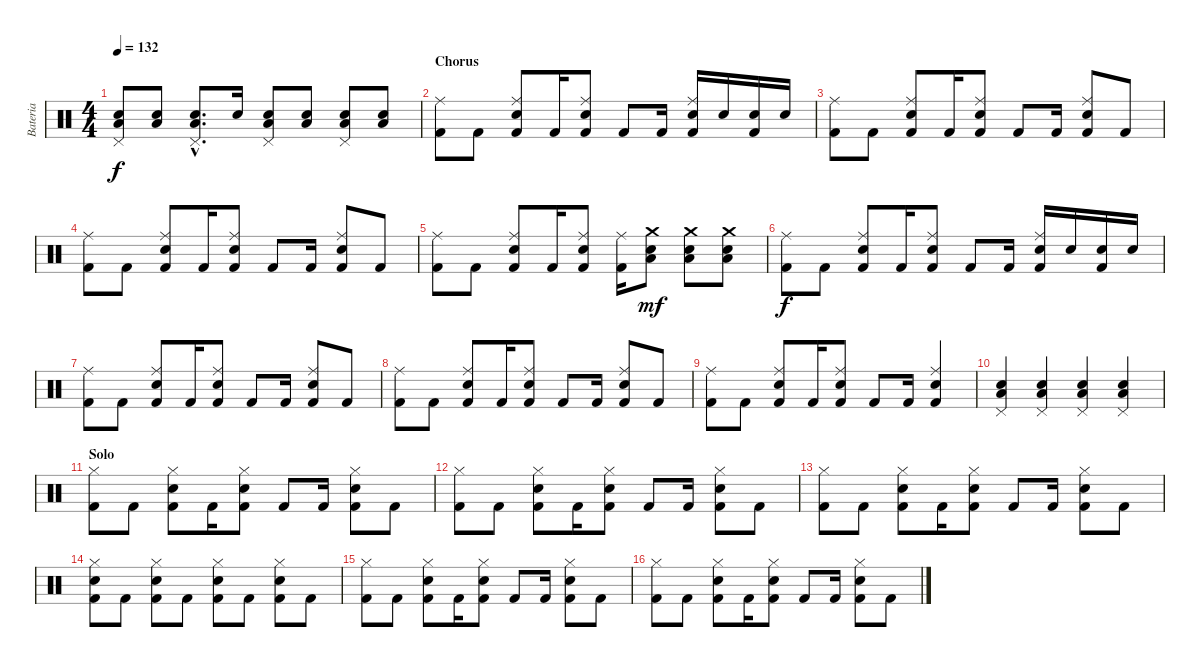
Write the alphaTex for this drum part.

\track ("Bateria" "Bateria") {instrument percussion}
\staff {score}
\articulation defaults
\ts (4 4)
\tempo 132
\clef neutral
\ks c
("Pedal Hi-Hat (hit)" "Electric Snare (hit)" "Low Floor Tom (hit)").8{dy f} ("Electric Snare (hit)" "Low Floor Tom (hit)").8 ("Pedal Hi-Hat (hit)"{hac} "Electric Snare (hit)"{hac} "Low Floor Tom (hit)"{hac}).8{d} "Electric Snare (hit)".16 ("Pedal Hi-Hat (hit)" "Electric Snare (hit)" "Low Floor Tom (hit)").8 ("Electric Snare (hit)" "Low Floor Tom (hit)").8 ("Pedal Hi-Hat (hit)" "Electric Snare (hit)" "Low Floor Tom (hit)").8 ("Electric Snare (hit)" "Low Floor Tom (hit)").8 |
\section ("" "Chorus")
("Ride (middle)" "Kick (hit) 2").8 "Kick (hit) 2".8 ("Ride (middle)" "Kick (hit) 2" "Electric Snare (hit)").8 "Kick (hit) 2".16 ("Ride (middle)" "Kick (hit) 2" "Electric Snare (hit)").8 "Kick (hit) 2".8 "Kick (hit) 2".16 ("Ride (middle)" "Kick (hit) 2" "Electric Snare (hit)").16 "Electric Snare (hit)".16 ("Kick (hit) 2" "Electric Snare (hit)").16 "Electric Snare (hit)".16 |
("Ride (middle)" "Kick (hit) 2").8 "Kick (hit) 2".8 ("Ride (middle)" "Kick (hit) 2" "Electric Snare (hit)").8 "Kick (hit) 2".16 ("Ride (middle)" "Kick (hit) 2" "Electric Snare (hit)").8 "Kick (hit) 2".8 "Kick (hit) 2".16 ("Ride (middle)" "Kick (hit) 2" "Electric Snare (hit)").8 "Kick (hit) 2".8 |
("Ride (middle)" "Kick (hit) 2").8 "Kick (hit) 2".8 ("Ride (middle)" "Kick (hit) 2" "Electric Snare (hit)").8 "Kick (hit) 2".16 ("Ride (middle)" "Kick (hit) 2" "Electric Snare (hit)").8 "Kick (hit) 2".8 "Kick (hit) 2".16 ("Ride (middle)" "Kick (hit) 2" "Electric Snare (hit)").8 "Kick (hit) 2".8 |
("Ride (middle)" "Kick (hit) 2").8 "Kick (hit) 2".8 ("Ride (middle)" "Kick (hit) 2" "Electric Snare (hit)").8 "Kick (hit) 2".16 ("Ride (middle)" "Kick (hit) 2" "Electric Snare (hit)").8 ("Ride (middle)" "Kick (hit) 2").16 ("Crash medium (hit)" "Low Floor Tom (hit)" "Electric Snare (hit)").8{dy mf} ("Crash medium (hit)" "Low Floor Tom (hit)" "Electric Snare (hit)").8 ("Crash medium (hit)" "Low Floor Tom (hit)" "Electric Snare (hit)").8 |
("Ride (middle)" "Kick (hit) 2").8{dy f} "Kick (hit) 2".8 ("Ride (middle)" "Kick (hit) 2" "Electric Snare (hit)").8 "Kick (hit) 2".16 ("Ride (middle)" "Kick (hit) 2" "Electric Snare (hit)").8 "Kick (hit) 2".8 "Kick (hit) 2".16 ("Ride (middle)" "Kick (hit) 2" "Electric Snare (hit)").16 "Electric Snare (hit)".16 ("Kick (hit) 2" "Electric Snare (hit)").16 "Electric Snare (hit)".16 |
("Ride (middle)" "Kick (hit) 2").8 "Kick (hit) 2".8 ("Ride (middle)" "Kick (hit) 2" "Electric Snare (hit)").8 "Kick (hit) 2".16 ("Ride (middle)" "Kick (hit) 2" "Electric Snare (hit)").8 "Kick (hit) 2".8 "Kick (hit) 2".16 ("Ride (middle)" "Kick (hit) 2" "Electric Snare (hit)").8 "Kick (hit) 2".8 |
("Ride (middle)" "Kick (hit) 2").8 "Kick (hit) 2".8 ("Ride (middle)" "Kick (hit) 2" "Electric Snare (hit)").8 "Kick (hit) 2".16 ("Ride (middle)" "Kick (hit) 2" "Electric Snare (hit)").8 "Kick (hit) 2".8 "Kick (hit) 2".16 ("Ride (middle)" "Kick (hit) 2" "Electric Snare (hit)").8 "Kick (hit) 2".8 |
("Ride (middle)" "Kick (hit) 2").8 "Kick (hit) 2".8 ("Ride (middle)" "Kick (hit) 2" "Electric Snare (hit)").8 "Kick (hit) 2".16 ("Ride (middle)" "Kick (hit) 2" "Electric Snare (hit)").8 "Kick (hit) 2".8 "Kick (hit) 2".16 ("Ride (middle)" "Kick (hit) 2" "Electric Snare (hit)").4 |
("Pedal Hi-Hat (hit)" "Electric Snare (hit)" "Low Floor Tom (hit)").4 ("Pedal Hi-Hat (hit)" "Electric Snare (hit)" "Low Floor Tom (hit)").4 ("Pedal Hi-Hat (hit)" "Electric Snare (hit)" "Low Floor Tom (hit)").4 ("Pedal Hi-Hat (hit)" "Electric Snare (hit)" "Low Floor Tom (hit)").4 |
\section ("" "Solo")
("Hi-Hat (closed)" "Kick (hit) 2").8 "Kick (hit) 2".8 ("Hi-Hat (closed)" "Kick (hit) 2" "Electric Snare (hit)").8 "Kick (hit) 2".16 ("Hi-Hat (closed)" "Kick (hit) 2" "Electric Snare (hit)").8 "Kick (hit) 2".8 "Kick (hit) 2".16 ("Hi-Hat (closed)" "Kick (hit) 2" "Electric Snare (hit)").8 "Kick (hit) 2".8 |
("Hi-Hat (closed)" "Kick (hit) 2").8 "Kick (hit) 2".8 ("Hi-Hat (closed)" "Kick (hit) 2" "Electric Snare (hit)").8 "Kick (hit) 2".16 ("Hi-Hat (closed)" "Kick (hit) 2" "Electric Snare (hit)").8 "Kick (hit) 2".8 "Kick (hit) 2".16 ("Hi-Hat (closed)" "Kick (hit) 2" "Electric Snare (hit)").8 "Kick (hit) 2".8 |
("Hi-Hat (closed)" "Kick (hit) 2").8 "Kick (hit) 2".8 ("Hi-Hat (closed)" "Kick (hit) 2" "Electric Snare (hit)").8 "Kick (hit) 2".16 ("Hi-Hat (closed)" "Kick (hit) 2" "Electric Snare (hit)").8 "Kick (hit) 2".8 "Kick (hit) 2".16 ("Hi-Hat (closed)" "Kick (hit) 2" "Electric Snare (hit)").8 "Kick (hit) 2".8 |
("Hi-Hat (closed)" "Kick (hit) 2" "Electric Snare (hit)").8 "Kick (hit) 2".8 ("Hi-Hat (closed)" "Kick (hit) 2" "Electric Snare (hit)").8 "Kick (hit) 2".8 ("Hi-Hat (closed)" "Kick (hit) 2" "Electric Snare (hit)").8 "Kick (hit) 2".8 ("Hi-Hat (closed)" "Kick (hit) 2" "Electric Snare (hit)").8 "Kick (hit) 2".8 |
("Hi-Hat (closed)" "Kick (hit) 2").8 "Kick (hit) 2".8 ("Hi-Hat (closed)" "Kick (hit) 2" "Electric Snare (hit)").8 "Kick (hit) 2".16 ("Hi-Hat (closed)" "Kick (hit) 2" "Electric Snare (hit)").8 "Kick (hit) 2".8 "Kick (hit) 2".16 ("Hi-Hat (closed)" "Kick (hit) 2" "Electric Snare (hit)").8 "Kick (hit) 2".8 |
("Hi-Hat (closed)" "Kick (hit) 2").8 "Kick (hit) 2".8 ("Hi-Hat (closed)" "Kick (hit) 2" "Electric Snare (hit)").8 "Kick (hit) 2".16 ("Hi-Hat (closed)" "Kick (hit) 2" "Electric Snare (hit)").8 "Kick (hit) 2".8 "Kick (hit) 2".16 ("Hi-Hat (closed)" "Kick (hit) 2" "Electric Snare (hit)").8 "Kick (hit) 2".8
